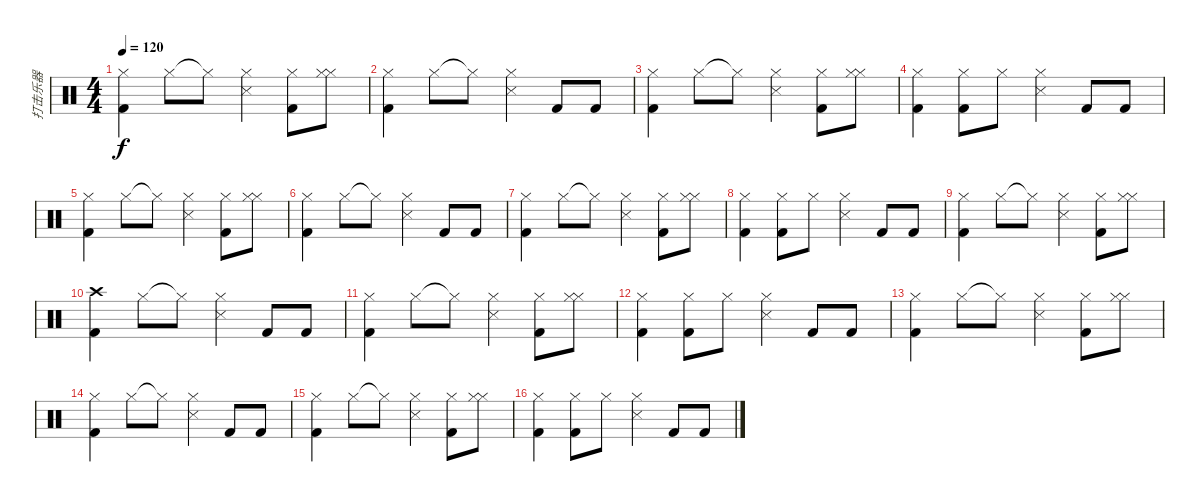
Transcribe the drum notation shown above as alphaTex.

\track ("打击乐器" "打击乐器") {instrument percussion}
\staff {score}
\articulation defaults
\ts (4 4)
\tempo 120
\clef neutral
\ks c
("Hi-Hat (closed)" "Kick (hit) 2").4{dy f} "Hi-Hat (closed)".8 "Hi-Hat (closed)"{t}.8 ("Snare (side stick) 3" "Hi-Hat (closed)").4 ("Hi-Hat (closed)" "Kick (hit) 2").8 ("Hi-Hat (closed)" "Hi-Hat (closed)").8 |
("Hi-Hat (closed)" "Kick (hit) 2").4 "Hi-Hat (closed)".8 "Hi-Hat (closed)"{t}.8 ("Snare (side stick) 3" "Hi-Hat (closed)").4 "Kick (hit) 2".8 "Kick (hit) 2".8 |
("Hi-Hat (closed)" "Kick (hit) 2").4 "Hi-Hat (closed)".8 "Hi-Hat (closed)"{t}.8 ("Snare (side stick) 3" "Hi-Hat (closed)").4 ("Hi-Hat (closed)" "Kick (hit) 2").8 ("Hi-Hat (closed)" "Hi-Hat (closed)").8 |
("Kick (hit) 2" "Hi-Hat (closed)").4 ("Kick (hit) 2" "Hi-Hat (closed)").8 "Hi-Hat (closed)".8 ("Snare (side stick) 3" "Hi-Hat (closed)").4 "Kick (hit) 2".8 "Kick (hit) 2".8 |
("Hi-Hat (closed)" "Kick (hit) 2").4 "Hi-Hat (closed)".8 "Hi-Hat (closed)"{t}.8 ("Snare (side stick) 3" "Hi-Hat (closed)").4 ("Hi-Hat (closed)" "Kick (hit) 2").8 ("Hi-Hat (closed)" "Hi-Hat (closed)").8 |
("Hi-Hat (closed)" "Kick (hit) 2").4 "Hi-Hat (closed)".8 "Hi-Hat (closed)"{t}.8 ("Snare (side stick) 3" "Hi-Hat (closed)").4 "Kick (hit) 2".8 "Kick (hit) 2".8 |
("Hi-Hat (closed)" "Kick (hit) 2").4 "Hi-Hat (closed)".8 "Hi-Hat (closed)"{t}.8 ("Snare (side stick) 3" "Hi-Hat (closed)").4 ("Hi-Hat (closed)" "Kick (hit) 2").8 ("Hi-Hat (closed)" "Hi-Hat (closed)").8 |
("Kick (hit) 2" "Hi-Hat (closed)").4 ("Kick (hit) 2" "Hi-Hat (closed)").8 "Hi-Hat (closed)".8 ("Snare (side stick) 3" "Hi-Hat (closed)").4 "Kick (hit) 2".8 "Kick (hit) 2".8 |
("Hi-Hat (closed)" "Kick (hit) 2").4 "Hi-Hat (closed)".8 "Hi-Hat (closed)"{t}.8 ("Snare (side stick) 3" "Hi-Hat (closed)").4 ("Hi-Hat (closed)" "Kick (hit) 2").8 ("Hi-Hat (closed)" "Hi-Hat (closed)").8 |
("Crash high (hit)" "Kick (hit) 2").4 "Hi-Hat (closed)".8 "Hi-Hat (closed)"{t}.8 ("Snare (side stick) 3" "Hi-Hat (closed)").4 "Kick (hit) 2".8 "Kick (hit) 2".8 |
("Hi-Hat (closed)" "Kick (hit) 2").4 "Hi-Hat (closed)".8 "Hi-Hat (closed)"{t}.8 ("Snare (side stick) 3" "Hi-Hat (closed)").4 ("Hi-Hat (closed)" "Kick (hit) 2").8 ("Hi-Hat (closed)" "Hi-Hat (closed)").8 |
("Kick (hit) 2" "Hi-Hat (closed)").4 ("Kick (hit) 2" "Hi-Hat (closed)").8 "Hi-Hat (closed)".8 ("Snare (side stick) 3" "Hi-Hat (closed)").4 "Kick (hit) 2".8 "Kick (hit) 2".8 |
("Hi-Hat (closed)" "Kick (hit) 2").4 "Hi-Hat (closed)".8 "Hi-Hat (closed)"{t}.8 ("Snare (side stick) 3" "Hi-Hat (closed)").4 ("Hi-Hat (closed)" "Kick (hit) 2").8 ("Hi-Hat (closed)" "Hi-Hat (closed)").8 |
("Hi-Hat (closed)" "Kick (hit) 2").4 "Hi-Hat (closed)".8 "Hi-Hat (closed)"{t}.8 ("Snare (side stick) 3" "Hi-Hat (closed)").4 "Kick (hit) 2".8 "Kick (hit) 2".8 |
("Hi-Hat (closed)" "Kick (hit) 2").4 "Hi-Hat (closed)".8 "Hi-Hat (closed)"{t}.8 ("Snare (side stick) 3" "Hi-Hat (closed)").4 ("Hi-Hat (closed)" "Kick (hit) 2").8 ("Hi-Hat (closed)" "Hi-Hat (closed)").8 |
("Kick (hit) 2" "Hi-Hat (closed)").4 ("Kick (hit) 2" "Hi-Hat (closed)").8 "Hi-Hat (closed)".8 ("Snare (side stick) 3" "Hi-Hat (closed)").4 "Kick (hit) 2".8 "Kick (hit) 2".8
